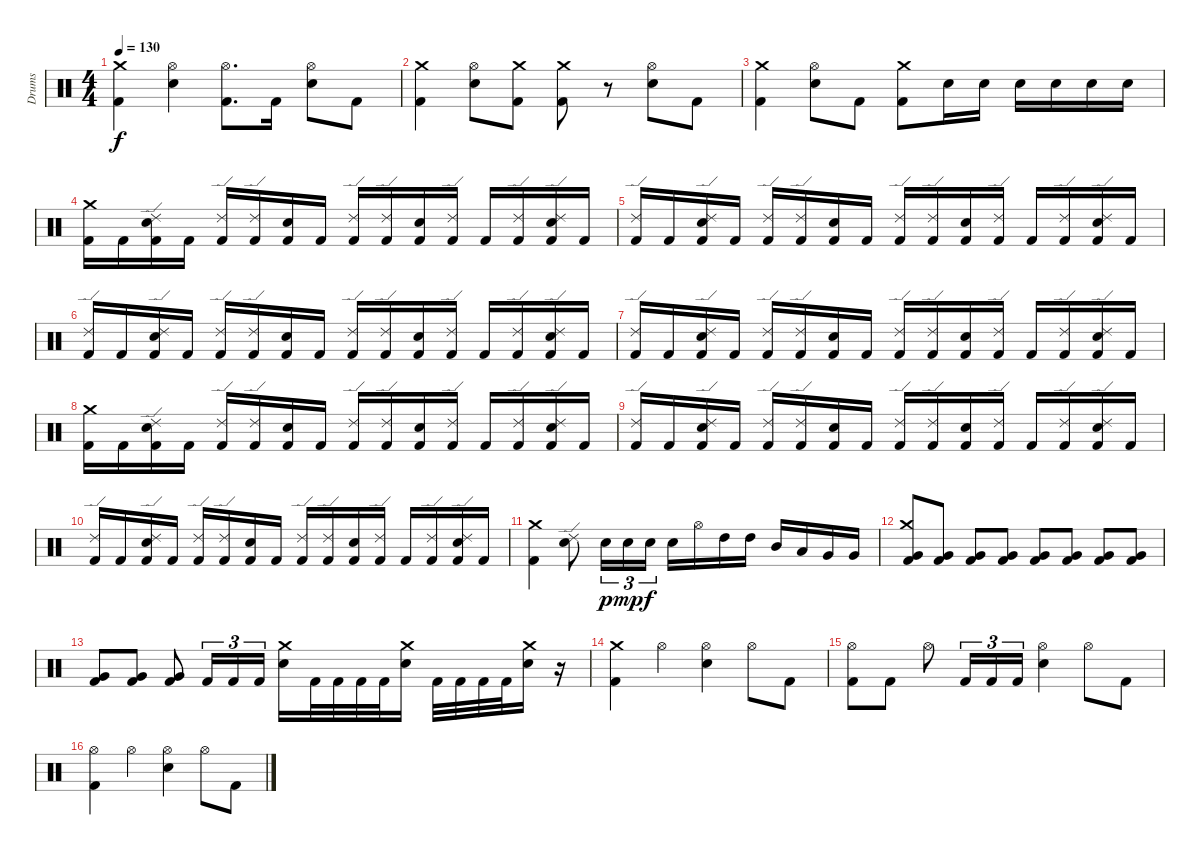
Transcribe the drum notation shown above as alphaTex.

\track ("Drums" "Drums") {instrument percussion}
\staff {score}
\articulation defaults
\ts (4 4)
\tempo 130
\clef neutral
\ks c
("Kick (hit) 2" "Crash medium (hit)").4{dy f} ("Electric Snare (hit)" "Hi-Hat (open)").4 ("Kick (hit) 2" "Hi-Hat (open)").8{d} "Kick (hit) 2".16 ("Hi-Hat (open)" "Electric Snare (hit)").8 "Kick (hit) 2".8 |
("Crash medium (hit)" "Kick (hit) 2").4 ("Hi-Hat (open)" "Electric Snare (hit)").8 ("Crash medium (hit)" "Kick (hit) 2").8 ("Crash medium (hit)" "Kick (hit) 2").8 r.8 ("Hi-Hat (open)" "Electric Snare (hit)").8 "Kick (hit) 2".8 |
("Crash medium (hit)" "Kick (hit) 2").4 ("Hi-Hat (open)" "Electric Snare (hit)").8 "Kick (hit) 2".8 ("Crash medium (hit)" "Kick (hit) 2").8 "Electric Snare (hit)".16 "Electric Snare (hit)".16 "Electric Snare (hit)".16 "Electric Snare (hit)".16 "Electric Snare (hit)".16 "Electric Snare (hit)".16 |
("Crash medium (hit)" "Kick (hit) 2").16 "Kick (hit) 2".16 ("Electric Snare (hit)" "Ride (edge) 2" "Kick (hit) 2").16 "Kick (hit) 2".16 ("Ride (edge) 2" "Kick (hit) 2").16 ("Ride (edge) 2" "Kick (hit) 2").16 ("Electric Snare (hit)" "Kick (hit) 2").16 "Kick (hit) 2".16 ("Ride (edge) 2" "Kick (hit) 2").16 ("Ride (edge) 2" "Kick (hit) 2").16 ("Electric Snare (hit)" "Kick (hit) 2").16 ("Ride (edge) 2" "Kick (hit) 2").16 "Kick (hit) 2".16 ("Ride (edge) 2" "Kick (hit) 2").16 ("Electric Snare (hit)" "Ride (edge) 2" "Kick (hit) 2").16 "Kick (hit) 2".16 |
("Ride (edge) 2" "Kick (hit) 2").16 "Kick (hit) 2".16 ("Electric Snare (hit)" "Ride (edge) 2" "Kick (hit) 2").16 "Kick (hit) 2".16 ("Ride (edge) 2" "Kick (hit) 2").16 ("Ride (edge) 2" "Kick (hit) 2").16 ("Electric Snare (hit)" "Kick (hit) 2").16 "Kick (hit) 2".16 ("Ride (edge) 2" "Kick (hit) 2").16 ("Ride (edge) 2" "Kick (hit) 2").16 ("Electric Snare (hit)" "Kick (hit) 2").16 ("Ride (edge) 2" "Kick (hit) 2").16 "Kick (hit) 2".16 ("Ride (edge) 2" "Kick (hit) 2").16 ("Electric Snare (hit)" "Ride (edge) 2" "Kick (hit) 2").16 "Kick (hit) 2".16 |
("Ride (edge) 2" "Kick (hit) 2").16 "Kick (hit) 2".16 ("Electric Snare (hit)" "Ride (edge) 2" "Kick (hit) 2").16 "Kick (hit) 2".16 ("Ride (edge) 2" "Kick (hit) 2").16 ("Ride (edge) 2" "Kick (hit) 2").16 ("Electric Snare (hit)" "Kick (hit) 2").16 "Kick (hit) 2".16 ("Ride (edge) 2" "Kick (hit) 2").16 ("Ride (edge) 2" "Kick (hit) 2").16 ("Electric Snare (hit)" "Kick (hit) 2").16 ("Ride (edge) 2" "Kick (hit) 2").16 "Kick (hit) 2".16 ("Ride (edge) 2" "Kick (hit) 2").16 ("Electric Snare (hit)" "Ride (edge) 2" "Kick (hit) 2").16 "Kick (hit) 2".16 |
("Ride (edge) 2" "Kick (hit) 2").16 "Kick (hit) 2".16 ("Electric Snare (hit)" "Ride (edge) 2" "Kick (hit) 2").16 "Kick (hit) 2".16 ("Ride (edge) 2" "Kick (hit) 2").16 ("Ride (edge) 2" "Kick (hit) 2").16 ("Electric Snare (hit)" "Kick (hit) 2").16 "Kick (hit) 2".16 ("Ride (edge) 2" "Kick (hit) 2").16 ("Ride (edge) 2" "Kick (hit) 2").16 ("Electric Snare (hit)" "Kick (hit) 2").16 ("Ride (edge) 2" "Kick (hit) 2").16 "Kick (hit) 2".16 ("Ride (edge) 2" "Kick (hit) 2").16 ("Electric Snare (hit)" "Ride (edge) 2" "Kick (hit) 2").16 "Kick (hit) 2".16 |
("Crash medium (hit)" "Kick (hit) 2").16 "Kick (hit) 2".16 ("Electric Snare (hit)" "Ride (edge) 2" "Kick (hit) 2").16 "Kick (hit) 2".16 ("Ride (edge) 2" "Kick (hit) 2").16 ("Ride (edge) 2" "Kick (hit) 2").16 ("Electric Snare (hit)" "Kick (hit) 2").16 "Kick (hit) 2".16 ("Ride (edge) 2" "Kick (hit) 2").16 ("Ride (edge) 2" "Kick (hit) 2").16 ("Electric Snare (hit)" "Kick (hit) 2").16 ("Ride (edge) 2" "Kick (hit) 2").16 "Kick (hit) 2".16 ("Ride (edge) 2" "Kick (hit) 2").16 ("Electric Snare (hit)" "Ride (edge) 2" "Kick (hit) 2").16 "Kick (hit) 2".16 |
("Ride (edge) 2" "Kick (hit) 2").16 "Kick (hit) 2".16 ("Electric Snare (hit)" "Ride (edge) 2" "Kick (hit) 2").16 "Kick (hit) 2".16 ("Ride (edge) 2" "Kick (hit) 2").16 ("Ride (edge) 2" "Kick (hit) 2").16 ("Electric Snare (hit)" "Kick (hit) 2").16 "Kick (hit) 2".16 ("Ride (edge) 2" "Kick (hit) 2").16 ("Ride (edge) 2" "Kick (hit) 2").16 ("Electric Snare (hit)" "Kick (hit) 2").16 ("Ride (edge) 2" "Kick (hit) 2").16 "Kick (hit) 2".16 ("Ride (edge) 2" "Kick (hit) 2").16 ("Electric Snare (hit)" "Ride (edge) 2" "Kick (hit) 2").16 "Kick (hit) 2".16 |
("Ride (edge) 2" "Kick (hit) 2").16 "Kick (hit) 2".16 ("Electric Snare (hit)" "Ride (edge) 2" "Kick (hit) 2").16 "Kick (hit) 2".16 ("Ride (edge) 2" "Kick (hit) 2").16 ("Ride (edge) 2" "Kick (hit) 2").16 ("Electric Snare (hit)" "Kick (hit) 2").16 "Kick (hit) 2".16 ("Ride (edge) 2" "Kick (hit) 2").16 ("Ride (edge) 2" "Kick (hit) 2").16 ("Electric Snare (hit)" "Kick (hit) 2").16 ("Ride (edge) 2" "Kick (hit) 2").16 "Kick (hit) 2".16 ("Ride (edge) 2" "Kick (hit) 2").16 ("Electric Snare (hit)" "Ride (edge) 2" "Kick (hit) 2").16 "Kick (hit) 2".16 |
("Kick (hit) 2" "Crash medium (hit)").4 ("Electric Snare (hit)" "Ride (edge) 2").8 "Electric Snare (hit)".16{tu (3 2) dy p} "Electric Snare (hit)".16{tu (3 2) dy mp} "Electric Snare (hit)".16{tu (3 2) dy f} "Electric Snare (hit)".16 "Hi-Hat (open)".16 "High Tom (hit)".16 "High Tom (hit)".16 "Mid Tom (hit)".16 "Low Tom (hit)".16 "Very Low Tom (hit)".16 "Very Low Tom (hit)".16 |
("Very Low Tom (hit)" "Crash medium (hit)" "Kick (hit) 2").8{volume 5} ("Very Low Tom (hit)" "Kick (hit) 2").8{volume 6} ("Very Low Tom (hit)" "Kick (hit) 2").8{volume 8} ("Very Low Tom (hit)" "Kick (hit) 2").8{volume 9} ("Very Low Tom (hit)" "Kick (hit) 2").8{volume 10} ("Very Low Tom (hit)" "Kick (hit) 2").8{volume 12} ("Very Low Tom (hit)" "Kick (hit) 2").8{volume 13} ("Very Low Tom (hit)" "Kick (hit) 2").8{volume 14} |
("Very Low Tom (hit)" "Kick (hit) 2").8{volume 16} ("Very Low Tom (hit)" "Kick (hit) 2").8 ("Very Low Tom (hit)" "Kick (hit) 2").8 "Kick (hit) 2".16{tu (3 2)} "Kick (hit) 2".16{tu (3 2)} "Kick (hit) 2".16{tu (3 2)} ("Crash medium (hit)" "Electric Snare (hit)").16 "Kick (hit) 2".32 "Kick (hit) 2".32 "Kick (hit) 2".32 "Kick (hit) 2".32 ("Crash medium (hit)" "Electric Snare (hit)").16 "Kick (hit) 2".32 "Kick (hit) 2".32 "Kick (hit) 2".32 "Kick (hit) 2".32 ("Crash medium (hit)" "Electric Snare (hit)").16 r.16 |
("Kick (hit) 2" "Crash medium (hit)").4 "Hi-Hat (open)".4 ("Electric Snare (hit)" "Hi-Hat (open)").4 "Hi-Hat (open)".8 "Kick (hit) 2".8 |
("Kick (hit) 2" "Hi-Hat (open)").8 "Kick (hit) 2".8 "Hi-Hat (open)".8 "Kick (hit) 2".16{tu (3 2)} "Kick (hit) 2".16{tu (3 2)} "Kick (hit) 2".16{tu (3 2)} ("Electric Snare (hit)" "Hi-Hat (open)").4 "Hi-Hat (open)".8 "Kick (hit) 2".8 |
("Hi-Hat (open)" "Kick (hit) 2").4 "Hi-Hat (open)".4 ("Electric Snare (hit)" "Hi-Hat (open)").4 "Hi-Hat (open)".8 "Kick (hit) 2".8
